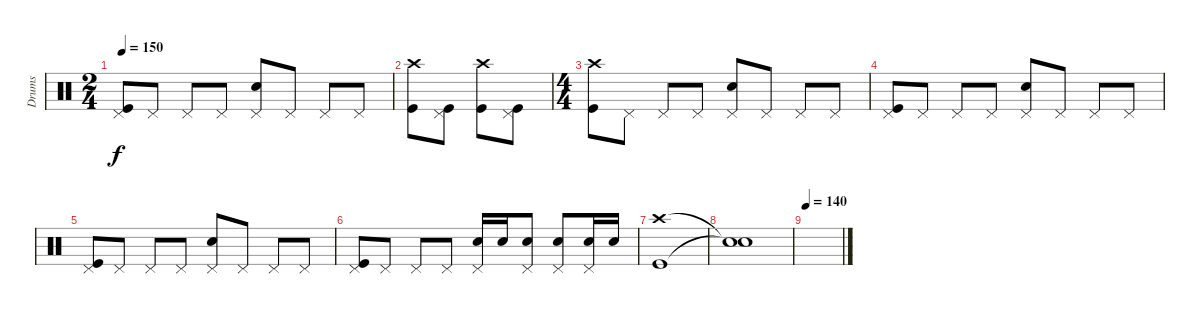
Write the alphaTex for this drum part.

\track ("Drums" "Drums") {instrument percussion}
\staff {score}
\articulation defaults
\ts (2 4)
\tempo 150
\clef neutral
\ks c
("Pedal Hi-Hat (hit)" "Kick (hit)").8{dy f} "Pedal Hi-Hat (hit)".8 "Pedal Hi-Hat (hit)".8 "Pedal Hi-Hat (hit)".8 ("Pedal Hi-Hat (hit)" "Snare (hit) 2").8 "Pedal Hi-Hat (hit)".8 "Pedal Hi-Hat (hit)".8 "Pedal Hi-Hat (hit)".8 |
("Crash high (hit)" "Kick (hit)").8 ("Pedal Hi-Hat (hit)" "Kick (hit)").8 ("Crash high (hit)" "Kick (hit)").8 ("Pedal Hi-Hat (hit)" "Kick (hit)").8 |
\ts (4 4)
("Crash high (hit)" "Kick (hit)").8 "Pedal Hi-Hat (hit)".8 "Pedal Hi-Hat (hit)".8 "Pedal Hi-Hat (hit)".8 ("Pedal Hi-Hat (hit)" "Snare (hit) 2").8 "Pedal Hi-Hat (hit)".8 "Pedal Hi-Hat (hit)".8 "Pedal Hi-Hat (hit)".8 |
("Pedal Hi-Hat (hit)" "Kick (hit)").8 "Pedal Hi-Hat (hit)".8 "Pedal Hi-Hat (hit)".8 "Pedal Hi-Hat (hit)".8 ("Pedal Hi-Hat (hit)" "Snare (hit) 2").8 "Pedal Hi-Hat (hit)".8 "Pedal Hi-Hat (hit)".8 "Pedal Hi-Hat (hit)".8 |
("Pedal Hi-Hat (hit)" "Kick (hit)").8 "Pedal Hi-Hat (hit)".8 "Pedal Hi-Hat (hit)".8 "Pedal Hi-Hat (hit)".8 ("Pedal Hi-Hat (hit)" "Snare (hit) 2").8 "Pedal Hi-Hat (hit)".8 "Pedal Hi-Hat (hit)".8 "Pedal Hi-Hat (hit)".8 |
("Pedal Hi-Hat (hit)" "Kick (hit)").8 "Pedal Hi-Hat (hit)".8 "Pedal Hi-Hat (hit)".8 "Pedal Hi-Hat (hit)".8 ("Pedal Hi-Hat (hit)" "Snare (hit) 2").16 "Snare (hit) 2".16 ("Pedal Hi-Hat (hit)" "Snare (hit) 2").8 ("Pedal Hi-Hat (hit)" "Snare (hit) 2").8 ("Pedal Hi-Hat (hit)" "Snare (hit) 2").16 "Snare (hit) 2".16 |
("Crash high (hit)" "Kick (hit)").1 |
("Snare (hit)"{t} "Snare (hit)"{t}).1 |
\tempo 140
